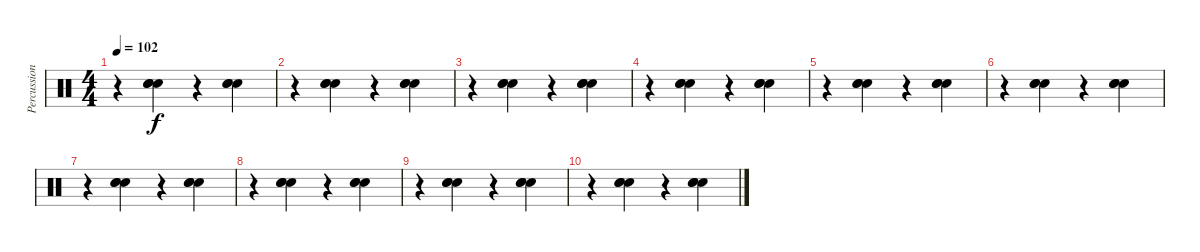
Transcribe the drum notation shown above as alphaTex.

\track ("Percussion" "Percussion") {instrument percussion}
\staff {score}
\articulation defaults
\ts (4 4)
\tempo 102
\clef neutral
\ks c
r.4{dy f} ("Electric Snare (hit)" "Hand Clap (hit)" "Snare (hit) 2").4 r.4 ("Electric Snare (hit)" "Hand Clap (hit)" "Snare (hit) 2").4 |
r.4 ("Electric Snare (hit)" "Hand Clap (hit)" "Snare (hit) 2").4 r.4 ("Electric Snare (hit)" "Hand Clap (hit)" "Snare (hit) 2").4 |
r.4 ("Electric Snare (hit)" "Hand Clap (hit)" "Snare (hit) 2").4 r.4 ("Electric Snare (hit)" "Hand Clap (hit)" "Snare (hit) 2").4 |
r.4 ("Electric Snare (hit)" "Hand Clap (hit)" "Snare (hit) 2").4 r.4 ("Electric Snare (hit)" "Hand Clap (hit)" "Snare (hit) 2").4 |
r.4 ("Electric Snare (hit)" "Hand Clap (hit)" "Snare (hit) 2").4 r.4 ("Electric Snare (hit)" "Hand Clap (hit)" "Snare (hit) 2").4 |
r.4 ("Electric Snare (hit)" "Hand Clap (hit)" "Snare (hit) 2").4 r.4 ("Electric Snare (hit)" "Hand Clap (hit)" "Snare (hit) 2").4 |
r.4 ("Electric Snare (hit)" "Hand Clap (hit)" "Snare (hit) 2").4 r.4 ("Electric Snare (hit)" "Hand Clap (hit)" "Snare (hit) 2").4 |
r.4 ("Electric Snare (hit)" "Hand Clap (hit)" "Snare (hit) 2").4 r.4 ("Electric Snare (hit)" "Hand Clap (hit)" "Snare (hit) 2").4 |
r.4 ("Electric Snare (hit)" "Hand Clap (hit)" "Snare (hit) 2").4 r.4 ("Electric Snare (hit)" "Hand Clap (hit)" "Snare (hit) 2").4 |
r.4 ("Electric Snare (hit)" "Hand Clap (hit)" "Snare (hit) 2").4 r.4 ("Electric Snare (hit)" "Hand Clap (hit)" "Snare (hit) 2").4
